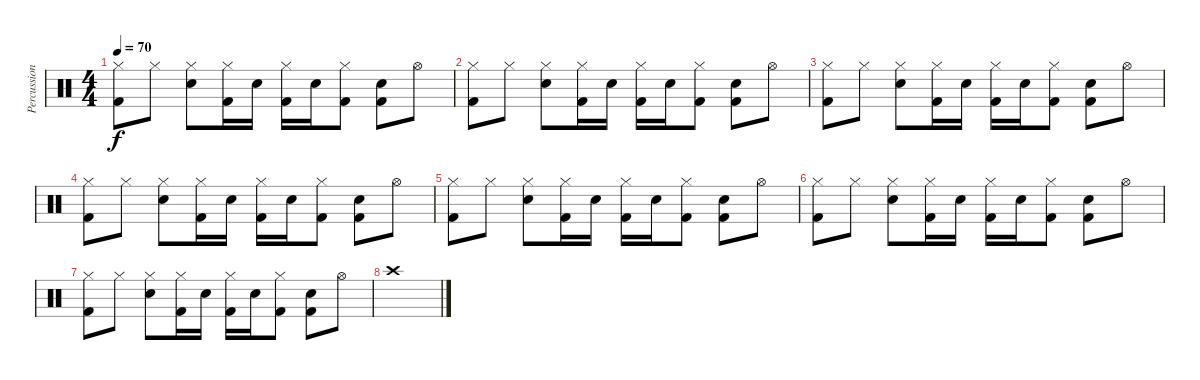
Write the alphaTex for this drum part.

\track ("Percussion" "Percussion") {instrument percussion}
\staff {score}
\articulation defaults
\ts (4 4)
\tempo 70
\clef neutral
\ks c
("Kick (hit) 2" "Hi-Hat (closed)").8{dy f} "Hi-Hat (closed)".8 ("Hi-Hat (closed)" "Snare (hit) 2").8 ("Hi-Hat (closed)" "Kick (hit) 2").16 "Snare (hit) 2".16 ("Hi-Hat (closed)" "Kick (hit) 2").16 "Snare (hit) 2".16 ("Hi-Hat (closed)" "Kick (hit) 2").8 ("Snare (hit) 2" "Kick (hit) 2").8 "Hi-Hat (open)".8 |
("Kick (hit) 2" "Hi-Hat (closed)").8 "Hi-Hat (closed)".8 ("Hi-Hat (closed)" "Snare (hit) 2").8 ("Hi-Hat (closed)" "Kick (hit) 2").16 "Snare (hit) 2".16 ("Hi-Hat (closed)" "Kick (hit) 2").16 "Snare (hit) 2".16 ("Hi-Hat (closed)" "Kick (hit) 2").8 ("Snare (hit) 2" "Kick (hit) 2").8 "Hi-Hat (open)".8 |
("Kick (hit) 2" "Hi-Hat (closed)").8 "Hi-Hat (closed)".8 ("Hi-Hat (closed)" "Snare (hit) 2").8 ("Hi-Hat (closed)" "Kick (hit) 2").16 "Snare (hit) 2".16 ("Hi-Hat (closed)" "Kick (hit) 2").16 "Snare (hit) 2".16 ("Hi-Hat (closed)" "Kick (hit) 2").8 ("Snare (hit) 2" "Kick (hit) 2").8 "Hi-Hat (open)".8 |
("Kick (hit) 2" "Hi-Hat (closed)").8 "Hi-Hat (closed)".8 ("Hi-Hat (closed)" "Snare (hit) 2").8 ("Hi-Hat (closed)" "Kick (hit) 2").16 "Snare (hit) 2".16 ("Hi-Hat (closed)" "Kick (hit) 2").16 "Snare (hit) 2".16 ("Hi-Hat (closed)" "Kick (hit) 2").8 ("Snare (hit) 2" "Kick (hit) 2").8 "Hi-Hat (open)".8 |
("Kick (hit) 2" "Hi-Hat (closed)").8 "Hi-Hat (closed)".8 ("Hi-Hat (closed)" "Snare (hit) 2").8 ("Hi-Hat (closed)" "Kick (hit) 2").16 "Snare (hit) 2".16 ("Hi-Hat (closed)" "Kick (hit) 2").16 "Snare (hit) 2".16 ("Hi-Hat (closed)" "Kick (hit) 2").8 ("Snare (hit) 2" "Kick (hit) 2").8 "Hi-Hat (open)".8 |
("Kick (hit) 2" "Hi-Hat (closed)").8 "Hi-Hat (closed)".8 ("Hi-Hat (closed)" "Snare (hit) 2").8 ("Hi-Hat (closed)" "Kick (hit) 2").16 "Snare (hit) 2".16 ("Hi-Hat (closed)" "Kick (hit) 2").16 "Snare (hit) 2".16 ("Hi-Hat (closed)" "Kick (hit) 2").8 ("Snare (hit) 2" "Kick (hit) 2").8 "Hi-Hat (open)".8 |
("Kick (hit) 2" "Hi-Hat (closed)").8 "Hi-Hat (closed)".8 ("Hi-Hat (closed)" "Snare (hit) 2").8 ("Hi-Hat (closed)" "Kick (hit) 2").16 "Snare (hit) 2".16 ("Hi-Hat (closed)" "Kick (hit) 2").16 "Snare (hit) 2".16 ("Hi-Hat (closed)" "Kick (hit) 2").8 ("Snare (hit) 2" "Kick (hit) 2").8 "Hi-Hat (open)".8 |
"Crash high (hit)".1
